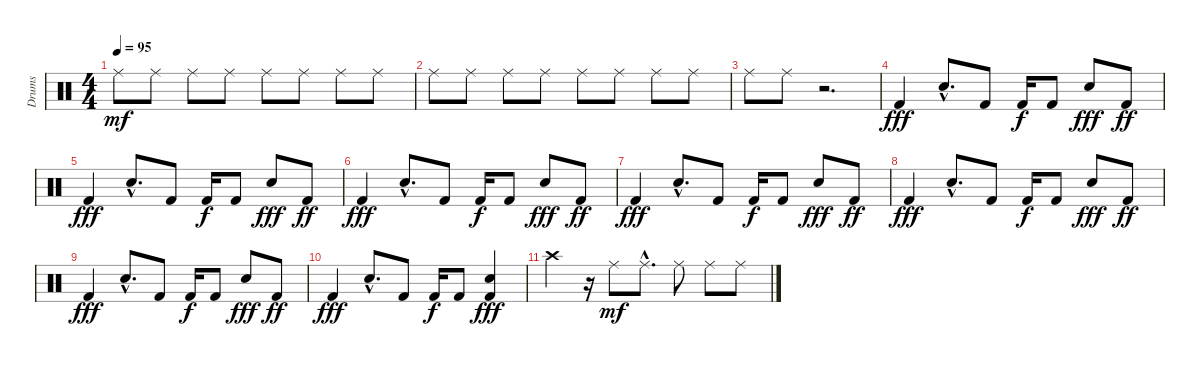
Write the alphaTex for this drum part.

\track ("Drums" "Drums") {instrument percussion}
\staff {score}
\articulation defaults
\ts (4 4)
\tempo 95
\clef neutral
\ks c "Ride (middle)".8{dy mf} "Ride (middle)".8 "Ride (middle)".8 "Ride (middle)".8 "Ride (middle)".8 "Ride (middle)".8 "Ride (middle)".8 "Ride (middle)".8
|
"Ride (middle)".8 "Ride (middle)".8 "Ride (middle)".8 "Ride (middle)".8 "Ride (middle)".8 "Ride (middle)".8 "Ride (middle)".8 "Ride (middle)".8 |
"Ride (middle)".8 "Ride (middle)".8 r.2{d} |
"Kick (hit) 2".4{dy fff} "Electric Snare (hit)"{hac}.8{d} "Kick (hit) 2".8 "Kick (hit) 2".16{dy f} "Kick (hit) 2".8 "Electric Snare (hit)".8{dy fff} "Kick (hit) 2".8{dy ff} |
"Kick (hit) 2".4{dy fff} "Electric Snare (hit)"{hac}.8{d} "Kick (hit) 2".8 "Kick (hit) 2".16{dy f} "Kick (hit) 2".8 "Electric Snare (hit)".8{dy fff} "Kick (hit) 2".8{dy ff} |
"Kick (hit) 2".4{dy fff} "Electric Snare (hit)"{hac}.8{d} "Kick (hit) 2".8 "Kick (hit) 2".16{dy f} "Kick (hit) 2".8 "Electric Snare (hit)".8{dy fff} "Kick (hit) 2".8{dy ff} |
"Kick (hit) 2".4{dy fff} "Electric Snare (hit)"{hac}.8{d} "Kick (hit) 2".8 "Kick (hit) 2".16{dy f} "Kick (hit) 2".8 "Electric Snare (hit)".8{dy fff} "Kick (hit) 2".8{dy ff} |
"Kick (hit) 2".4{dy fff} "Electric Snare (hit)"{hac}.8{d} "Kick (hit) 2".8 "Kick (hit) 2".16{dy f} "Kick (hit) 2".8 "Electric Snare (hit)".8{dy fff} "Kick (hit) 2".8{dy ff} |
"Kick (hit) 2".4{dy fff} "Electric Snare (hit)"{hac}.8{d} "Kick (hit) 2".8 "Kick (hit) 2".16{dy f} "Kick (hit) 2".8 "Electric Snare (hit)".8{dy fff} "Kick (hit) 2".8{dy ff} |
"Kick (hit) 2".4{dy fff} "Electric Snare (hit)"{hac}.8{d} "Kick (hit) 2".8 "Kick (hit) 2".16{dy f} "Kick (hit) 2".8 ("Electric Snare (hit)" "Kick (hit) 2").4{dy fff} |
"Crash high (hit)".4 r.16 "Ride (middle)".8{dy mf} "Ride (middle)"{hac}.8{d} "Ride (middle)".8 "Ride (middle)".8 "Ride (middle)".8
